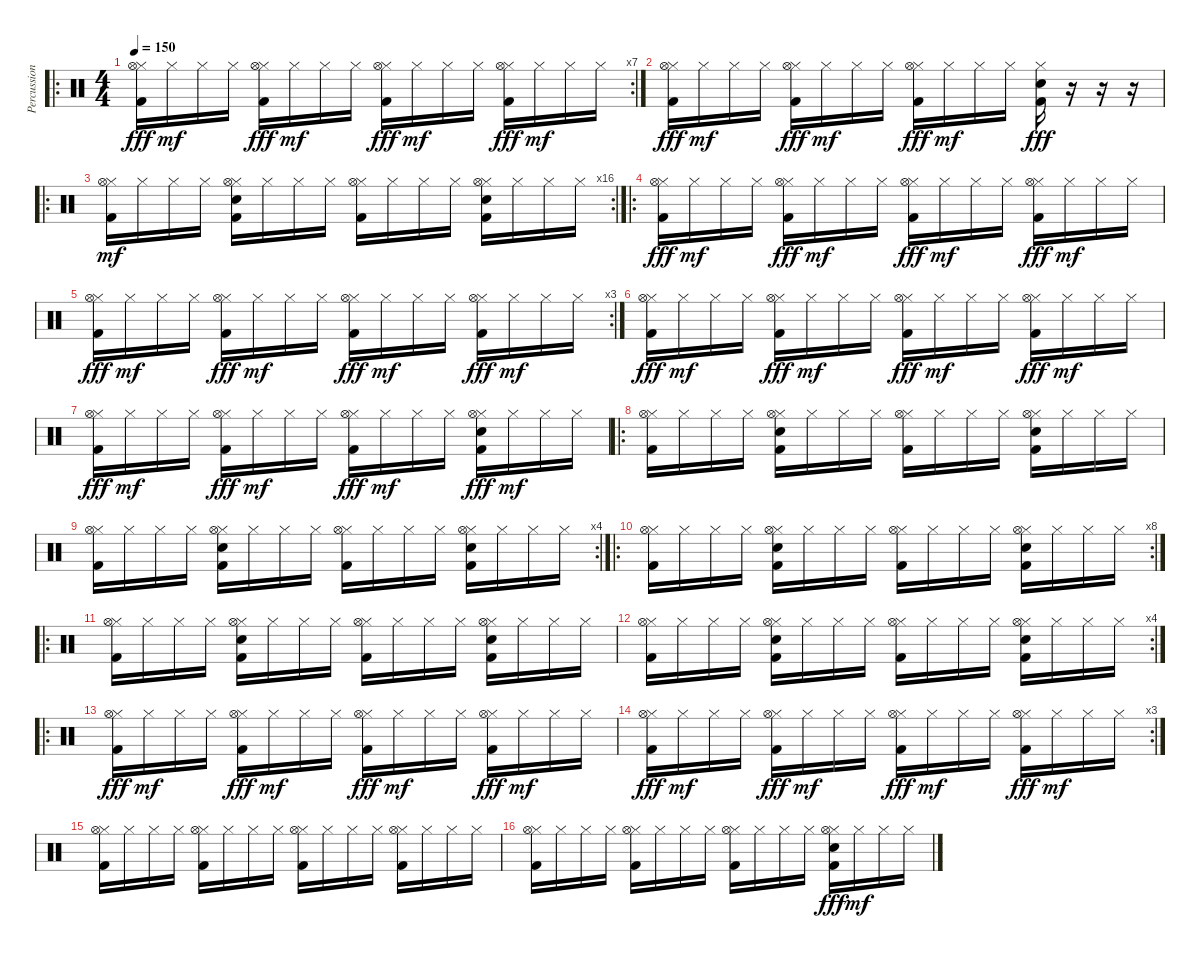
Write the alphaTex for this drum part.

\track ("Percussion" "Percussion") {instrument percussion}
\staff {score}
\articulation defaults
\ro
\rc 7
\ts (4 4)
\tempo 150
\clef neutral
\ks c
("Hi-Hat (closed)" "Hi-Hat (open)" "Kick (hit) 2").16{dy fff} "Hi-Hat (closed)".16{dy mf} "Hi-Hat (closed)".16 "Hi-Hat (closed)".16 ("Hi-Hat (closed)" "Hi-Hat (open)" "Kick (hit) 2").16{dy fff} "Hi-Hat (closed)".16{dy mf} "Hi-Hat (closed)".16 "Hi-Hat (closed)".16 ("Hi-Hat (closed)" "Hi-Hat (open)" "Kick (hit) 2").16{dy fff} "Hi-Hat (closed)".16{dy mf} "Hi-Hat (closed)".16 "Hi-Hat (closed)".16 ("Hi-Hat (closed)" "Hi-Hat (open)" "Kick (hit) 2").16{dy fff} "Hi-Hat (closed)".16{dy mf} "Hi-Hat (closed)".16 "Hi-Hat (closed)".16 |
("Hi-Hat (closed)" "Hi-Hat (open)" "Kick (hit) 2").16{dy fff} "Hi-Hat (closed)".16{dy mf} "Hi-Hat (closed)".16 "Hi-Hat (closed)".16 ("Hi-Hat (closed)" "Hi-Hat (open)" "Kick (hit) 2").16{dy fff} "Hi-Hat (closed)".16{dy mf} "Hi-Hat (closed)".16 "Hi-Hat (closed)".16 ("Hi-Hat (closed)" "Hi-Hat (open)" "Kick (hit) 2").16{dy fff} "Hi-Hat (closed)".16{dy mf} "Hi-Hat (closed)".16 "Hi-Hat (closed)".16 ("Hi-Hat (closed)" "Electric Snare (hit)" "Kick (hit) 2").16{dy fff volume 16} r.16 r.16 r.16 |
\ro
\rc 16
("Hi-Hat (closed)" "Hi-Hat (open)" "Kick (hit) 2").16{dy mf} "Hi-Hat (closed)".16 "Hi-Hat (closed)".16 "Hi-Hat (closed)".16 ("Hi-Hat (closed)" "Hi-Hat (open)" "Electric Snare (hit)" "Kick (hit) 2").16 "Hi-Hat (closed)".16 "Hi-Hat (closed)".16 "Hi-Hat (closed)".16 ("Hi-Hat (closed)" "Hi-Hat (open)" "Kick (hit) 2").16 "Hi-Hat (closed)".16 "Hi-Hat (closed)".16 "Hi-Hat (closed)".16 ("Hi-Hat (closed)" "Hi-Hat (open)" "Electric Snare (hit)" "Kick (hit) 2").16 "Hi-Hat (closed)".16 "Hi-Hat (closed)".16 "Hi-Hat (closed)".16 |
\ro
("Hi-Hat (closed)" "Hi-Hat (open)" "Kick (hit) 2").16{dy fff} "Hi-Hat (closed)".16{dy mf} "Hi-Hat (closed)".16 "Hi-Hat (closed)".16 ("Hi-Hat (closed)" "Hi-Hat (open)" "Kick (hit) 2").16{dy fff} "Hi-Hat (closed)".16{dy mf} "Hi-Hat (closed)".16 "Hi-Hat (closed)".16 ("Hi-Hat (closed)" "Hi-Hat (open)" "Kick (hit) 2").16{dy fff} "Hi-Hat (closed)".16{dy mf} "Hi-Hat (closed)".16 "Hi-Hat (closed)".16 ("Hi-Hat (closed)" "Hi-Hat (open)" "Kick (hit) 2").16{dy fff} "Hi-Hat (closed)".16{dy mf} "Hi-Hat (closed)".16 "Hi-Hat (closed)".16 |
\rc 3
("Hi-Hat (closed)" "Hi-Hat (open)" "Kick (hit) 2").16{dy fff} "Hi-Hat (closed)".16{dy mf} "Hi-Hat (closed)".16 "Hi-Hat (closed)".16 ("Hi-Hat (closed)" "Hi-Hat (open)" "Kick (hit) 2").16{dy fff} "Hi-Hat (closed)".16{dy mf} "Hi-Hat (closed)".16 "Hi-Hat (closed)".16 ("Hi-Hat (closed)" "Hi-Hat (open)" "Kick (hit) 2").16{dy fff} "Hi-Hat (closed)".16{dy mf} "Hi-Hat (closed)".16 "Hi-Hat (closed)".16 ("Hi-Hat (closed)" "Hi-Hat (open)" "Kick (hit) 2").16{dy fff} "Hi-Hat (closed)".16{dy mf} "Hi-Hat (closed)".16 "Hi-Hat (closed)".16 |
("Hi-Hat (closed)" "Hi-Hat (open)" "Kick (hit) 2").16{dy fff} "Hi-Hat (closed)".16{dy mf} "Hi-Hat (closed)".16 "Hi-Hat (closed)".16 ("Hi-Hat (closed)" "Hi-Hat (open)" "Kick (hit) 2").16{dy fff} "Hi-Hat (closed)".16{dy mf} "Hi-Hat (closed)".16 "Hi-Hat (closed)".16 ("Hi-Hat (closed)" "Hi-Hat (open)" "Kick (hit) 2").16{dy fff} "Hi-Hat (closed)".16{dy mf} "Hi-Hat (closed)".16 "Hi-Hat (closed)".16 ("Hi-Hat (closed)" "Hi-Hat (open)" "Kick (hit) 2").16{dy fff} "Hi-Hat (closed)".16{dy mf} "Hi-Hat (closed)".16 "Hi-Hat (closed)".16 |
("Hi-Hat (closed)" "Hi-Hat (open)" "Kick (hit) 2").16{dy fff} "Hi-Hat (closed)".16{dy mf} "Hi-Hat (closed)".16 "Hi-Hat (closed)".16 ("Hi-Hat (closed)" "Hi-Hat (open)" "Kick (hit) 2").16{dy fff} "Hi-Hat (closed)".16{dy mf} "Hi-Hat (closed)".16 "Hi-Hat (closed)".16 ("Hi-Hat (closed)" "Hi-Hat (open)" "Kick (hit) 2").16{dy fff} "Hi-Hat (closed)".16{dy mf} "Hi-Hat (closed)".16 "Hi-Hat (closed)".16 ("Hi-Hat (closed)" "Hi-Hat (open)" "Electric Snare (hit)" "Kick (hit) 2").16{dy fff volume 16} "Hi-Hat (closed)".16{dy mf} "Hi-Hat (closed)".16 "Hi-Hat (closed)".16 |
\ro
("Hi-Hat (closed)" "Hi-Hat (open)" "Kick (hit) 2").16 "Hi-Hat (closed)".16 "Hi-Hat (closed)".16 "Hi-Hat (closed)".16 ("Hi-Hat (closed)" "Hi-Hat (open)" "Electric Snare (hit)" "Kick (hit) 2").16 "Hi-Hat (closed)".16 "Hi-Hat (closed)".16 "Hi-Hat (closed)".16 ("Hi-Hat (closed)" "Hi-Hat (open)" "Kick (hit) 2").16 "Hi-Hat (closed)".16 "Hi-Hat (closed)".16 "Hi-Hat (closed)".16 ("Hi-Hat (closed)" "Hi-Hat (open)" "Electric Snare (hit)" "Kick (hit) 2").16 "Hi-Hat (closed)".16 "Hi-Hat (closed)".16 "Hi-Hat (closed)".16 |
\rc 4
("Hi-Hat (closed)" "Hi-Hat (open)" "Kick (hit) 2").16 "Hi-Hat (closed)".16 "Hi-Hat (closed)".16 "Hi-Hat (closed)".16 ("Hi-Hat (closed)" "Hi-Hat (open)" "Electric Snare (hit)" "Kick (hit) 2").16 "Hi-Hat (closed)".16 "Hi-Hat (closed)".16 "Hi-Hat (closed)".16 ("Hi-Hat (closed)" "Hi-Hat (open)" "Kick (hit) 2").16 "Hi-Hat (closed)".16 "Hi-Hat (closed)".16 "Hi-Hat (closed)".16 ("Hi-Hat (closed)" "Hi-Hat (open)" "Electric Snare (hit)" "Kick (hit) 2").16 "Hi-Hat (closed)".16 "Hi-Hat (closed)".16 "Hi-Hat (closed)".16 |
\ro
\rc 8
("Hi-Hat (closed)" "Hi-Hat (open)" "Kick (hit) 2").16 "Hi-Hat (closed)".16 "Hi-Hat (closed)".16 "Hi-Hat (closed)".16 ("Hi-Hat (closed)" "Hi-Hat (open)" "Electric Snare (hit)" "Kick (hit) 2").16 "Hi-Hat (closed)".16 "Hi-Hat (closed)".16 "Hi-Hat (closed)".16 ("Hi-Hat (closed)" "Hi-Hat (open)" "Kick (hit) 2").16 "Hi-Hat (closed)".16 "Hi-Hat (closed)".16 "Hi-Hat (closed)".16 ("Hi-Hat (closed)" "Hi-Hat (open)" "Electric Snare (hit)" "Kick (hit) 2").16 "Hi-Hat (closed)".16 "Hi-Hat (closed)".16 "Hi-Hat (closed)".16 |
\ro
("Hi-Hat (closed)" "Hi-Hat (open)" "Kick (hit) 2").16 "Hi-Hat (closed)".16 "Hi-Hat (closed)".16 "Hi-Hat (closed)".16 ("Hi-Hat (closed)" "Hi-Hat (open)" "Electric Snare (hit)" "Kick (hit) 2").16 "Hi-Hat (closed)".16 "Hi-Hat (closed)".16 "Hi-Hat (closed)".16 ("Hi-Hat (closed)" "Hi-Hat (open)" "Kick (hit) 2").16 "Hi-Hat (closed)".16 "Hi-Hat (closed)".16 "Hi-Hat (closed)".16 ("Hi-Hat (closed)" "Hi-Hat (open)" "Electric Snare (hit)" "Kick (hit) 2").16 "Hi-Hat (closed)".16 "Hi-Hat (closed)".16 "Hi-Hat (closed)".16 |
\rc 4
("Hi-Hat (closed)" "Hi-Hat (open)" "Kick (hit) 2").16 "Hi-Hat (closed)".16 "Hi-Hat (closed)".16 "Hi-Hat (closed)".16 ("Hi-Hat (closed)" "Hi-Hat (open)" "Electric Snare (hit)" "Kick (hit) 2").16 "Hi-Hat (closed)".16 "Hi-Hat (closed)".16 "Hi-Hat (closed)".16 ("Hi-Hat (closed)" "Hi-Hat (open)" "Kick (hit) 2").16 "Hi-Hat (closed)".16 "Hi-Hat (closed)".16 "Hi-Hat (closed)".16 ("Hi-Hat (closed)" "Hi-Hat (open)" "Electric Snare (hit)" "Kick (hit) 2").16 "Hi-Hat (closed)".16 "Hi-Hat (closed)".16 "Hi-Hat (closed)".16 |
\ro
("Hi-Hat (closed)" "Hi-Hat (open)" "Kick (hit) 2").16{dy fff} "Hi-Hat (closed)".16{dy mf} "Hi-Hat (closed)".16 "Hi-Hat (closed)".16 ("Hi-Hat (closed)" "Hi-Hat (open)" "Kick (hit) 2").16{dy fff} "Hi-Hat (closed)".16{dy mf} "Hi-Hat (closed)".16 "Hi-Hat (closed)".16 ("Hi-Hat (closed)" "Hi-Hat (open)" "Kick (hit) 2").16{dy fff} "Hi-Hat (closed)".16{dy mf} "Hi-Hat (closed)".16 "Hi-Hat (closed)".16 ("Hi-Hat (closed)" "Hi-Hat (open)" "Kick (hit) 2").16{dy fff} "Hi-Hat (closed)".16{dy mf} "Hi-Hat (closed)".16 "Hi-Hat (closed)".16 |
\rc 3
("Hi-Hat (closed)" "Hi-Hat (open)" "Kick (hit) 2").16{dy fff} "Hi-Hat (closed)".16{dy mf} "Hi-Hat (closed)".16 "Hi-Hat (closed)".16 ("Hi-Hat (closed)" "Hi-Hat (open)" "Kick (hit) 2").16{dy fff} "Hi-Hat (closed)".16{dy mf} "Hi-Hat (closed)".16 "Hi-Hat (closed)".16 ("Hi-Hat (closed)" "Hi-Hat (open)" "Kick (hit) 2").16{dy fff} "Hi-Hat (closed)".16{dy mf} "Hi-Hat (closed)".16 "Hi-Hat (closed)".16 ("Hi-Hat (closed)" "Hi-Hat (open)" "Kick (hit) 2").16{dy fff} "Hi-Hat (closed)".16{dy mf} "Hi-Hat (closed)".16 "Hi-Hat (closed)".16 |
("Hi-Hat (closed)" "Hi-Hat (open)" "Kick (hit) 2").16 "Hi-Hat (closed)".16 "Hi-Hat (closed)".16 "Hi-Hat (closed)".16 ("Hi-Hat (closed)" "Hi-Hat (open)" "Kick (hit) 2").16 "Hi-Hat (closed)".16 "Hi-Hat (closed)".16 "Hi-Hat (closed)".16 ("Hi-Hat (closed)" "Hi-Hat (open)" "Kick (hit) 2").16 "Hi-Hat (closed)".16 "Hi-Hat (closed)".16 "Hi-Hat (closed)".16 ("Hi-Hat (closed)" "Hi-Hat (open)" "Kick (hit) 2").16 "Hi-Hat (closed)".16 "Hi-Hat (closed)".16 "Hi-Hat (closed)".16 |
("Hi-Hat (closed)" "Hi-Hat (open)" "Kick (hit) 2").16 "Hi-Hat (closed)".16 "Hi-Hat (closed)".16 "Hi-Hat (closed)".16 ("Hi-Hat (closed)" "Hi-Hat (open)" "Kick (hit) 2").16 "Hi-Hat (closed)".16 "Hi-Hat (closed)".16 "Hi-Hat (closed)".16 ("Hi-Hat (closed)" "Hi-Hat (open)" "Kick (hit) 2").16 "Hi-Hat (closed)".16 "Hi-Hat (closed)".16 "Hi-Hat (closed)".16 ("Hi-Hat (closed)" "Hi-Hat (open)" "Electric Snare (hit)" "Kick (hit) 2").16{dy fff} "Hi-Hat (closed)".16{dy mf} "Hi-Hat (closed)".16 "Hi-Hat (closed)".16
